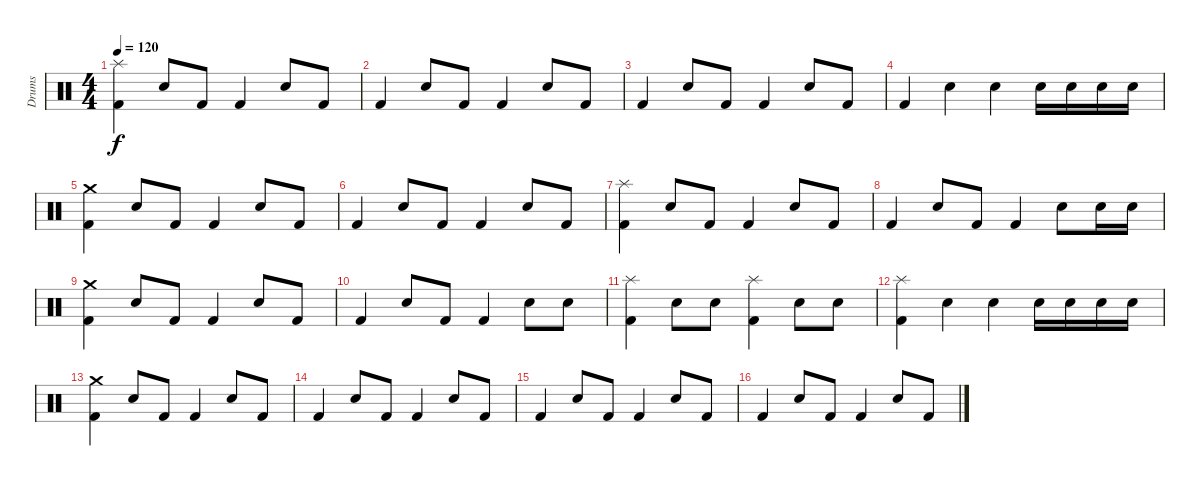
\track ("Drums" "Drums") {instrument percussion}
\staff {score}
\articulation defaults
\ts (4 4)
\tempo 120
\clef neutral
\ks c
("Splash (hit)" "Kick (hit) 2").4{dy f} "Snare (hit) 2".8 "Kick (hit) 2".8 "Kick (hit) 2".4 "Snare (hit) 2".8 "Kick (hit) 2".8 |
"Kick (hit) 2".4 "Snare (hit) 2".8 "Kick (hit) 2".8 "Kick (hit) 2".4 "Snare (hit) 2".8 "Kick (hit) 2".8 |
"Kick (hit) 2".4 "Snare (hit) 2".8 "Kick (hit) 2".8 "Kick (hit) 2".4 "Snare (hit) 2".8 "Kick (hit) 2".8 |
"Kick (hit) 2".4 "Snare (hit) 2".4 "Snare (hit) 2".4 "Snare (hit) 2".16 "Snare (hit) 2".16 "Snare (hit) 2".16 "Snare (hit) 2".16 |
("Crash medium (hit)" "Kick (hit) 2").4 "Snare (hit) 2".8 "Kick (hit) 2".8 "Kick (hit) 2".4 "Snare (hit) 2".8 "Kick (hit) 2".8 |
"Kick (hit) 2".4 "Snare (hit) 2".8 "Kick (hit) 2".8 "Kick (hit) 2".4 "Snare (hit) 2".8 "Kick (hit) 2".8 |
("Splash (hit)" "Kick (hit) 2").4 "Snare (hit) 2".8 "Kick (hit) 2".8 "Kick (hit) 2".4 "Snare (hit) 2".8 "Kick (hit) 2".8 |
"Kick (hit) 2".4 "Snare (hit) 2".8 "Kick (hit) 2".8 "Kick (hit) 2".4 "Snare (hit) 2".8 "Snare (hit) 2".16 "Snare (hit) 2".16 |
("Crash medium (hit)" "Kick (hit) 2").4 "Snare (hit) 2".8 "Kick (hit) 2".8 "Kick (hit) 2".4 "Snare (hit) 2".8 "Kick (hit) 2".8 |
"Kick (hit) 2".4 "Snare (hit) 2".8 "Kick (hit) 2".8 "Kick (hit) 2".4 "Snare (hit) 2".8 "Snare (hit) 2".8 |
("Splash (hit)" "Kick (hit) 2").4 "Snare (hit) 2".8 "Snare (hit) 2".8 ("Splash (hit)" "Kick (hit) 2").4 "Snare (hit) 2".8 "Snare (hit) 2".8 |
("Splash (hit)" "Kick (hit) 2").4 "Snare (hit) 2".4 "Snare (hit) 2".4 "Snare (hit) 2".16 "Snare (hit) 2".16 "Snare (hit) 2".16 "Snare (hit) 2".16 |
("Crash medium (hit)" "Kick (hit) 2").4 "Snare (hit) 2".8 "Kick (hit) 2".8 "Kick (hit) 2".4 "Snare (hit) 2".8 "Kick (hit) 2".8 |
"Kick (hit) 2".4 "Snare (hit) 2".8 "Kick (hit) 2".8 "Kick (hit) 2".4 "Snare (hit) 2".8 "Kick (hit) 2".8 |
"Kick (hit) 2".4 "Snare (hit) 2".8 "Kick (hit) 2".8 "Kick (hit) 2".4 "Snare (hit) 2".8 "Kick (hit) 2".8 |
"Kick (hit) 2".4 "Snare (hit) 2".8 "Kick (hit) 2".8 "Kick (hit) 2".4 "Snare (hit) 2".8 "Kick (hit) 2".8
